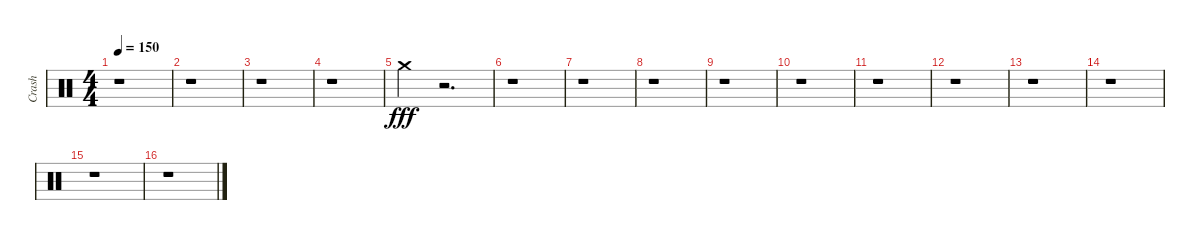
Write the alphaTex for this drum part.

\track ("Crash" "Crash") {instrument percussion}
\staff {score}
\articulation defaults
\ts (4 4)
\tempo 150
\clef neutral
\ks c
r.1{dy fff} |
r.1 |
r.1 |
r.1 |
"Crash medium (hit)".4 r.2{d} |
r.1 |
r.1 |
r.1 |
r.1 |
r.1 |
r.1 |
r.1 |
r.1 |
r.1 |
r.1 |
r.1
